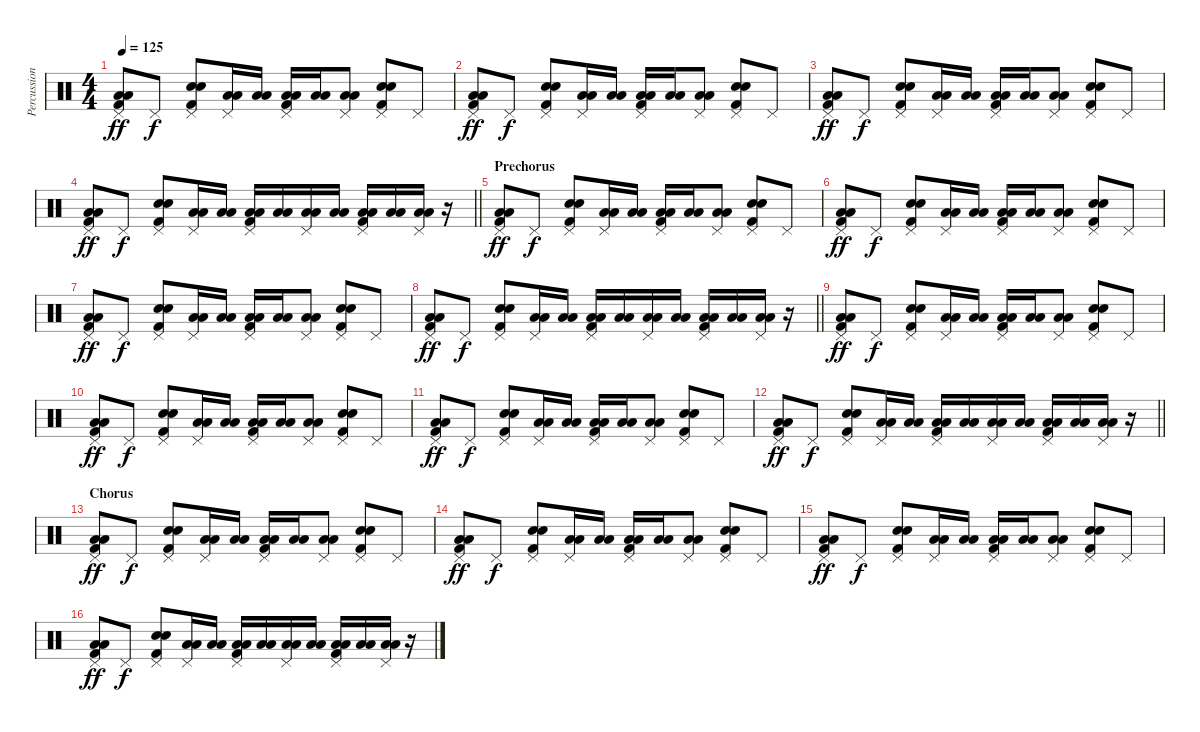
\track ("Percussion2" "Percussion") {instrument percussion}
\staff {score}
\articulation defaults
\ts (4 4)
\tempo 125
\clef neutral
\ks c
("Pedal Hi-Hat (hit)" "Low Floor Tom (hit)" "Low Floor Tom (hit)" "Kick (hit) 2").8{dy ff} "Pedal Hi-Hat (hit)".8{dy f} ("Pedal Hi-Hat (hit)" "Electric Snare (hit)" "Electric Snare (hit)" "Kick (hit) 2").8 ("Pedal Hi-Hat (hit)" "Low Floor Tom (hit)" "Low Floor Tom (hit)").16 ("Low Tom (hit)" "Low Tom (hit)").16 ("Pedal Hi-Hat (hit)" "Low Floor Tom (hit)" "Low Floor Tom (hit)" "Kick (hit) 2").16 ("Low Floor Tom (hit)" "Low Floor Tom (hit)").16 ("Pedal Hi-Hat (hit)" "Low Floor Tom (hit)" "Low Floor Tom (hit)").8 ("Pedal Hi-Hat (hit)" "Electric Snare (hit)" "Electric Snare (hit)" "Kick (hit) 2").8 "Pedal Hi-Hat (hit)".8 |
("Pedal Hi-Hat (hit)" "Low Floor Tom (hit)" "Low Floor Tom (hit)" "Kick (hit) 2").8{dy ff} "Pedal Hi-Hat (hit)".8{dy f} ("Pedal Hi-Hat (hit)" "Electric Snare (hit)" "Electric Snare (hit)" "Kick (hit) 2").8 ("Pedal Hi-Hat (hit)" "Low Floor Tom (hit)" "Low Floor Tom (hit)").16 ("Low Tom (hit)" "Low Tom (hit)").16 ("Pedal Hi-Hat (hit)" "Low Floor Tom (hit)" "Low Floor Tom (hit)" "Kick (hit) 2").16 ("Low Floor Tom (hit)" "Low Floor Tom (hit)").16 ("Pedal Hi-Hat (hit)" "Low Floor Tom (hit)" "Low Floor Tom (hit)").8 ("Pedal Hi-Hat (hit)" "Electric Snare (hit)" "Electric Snare (hit)" "Kick (hit) 2").8 "Pedal Hi-Hat (hit)".8 |
("Pedal Hi-Hat (hit)" "Low Floor Tom (hit)" "Low Floor Tom (hit)" "Kick (hit) 2").8{dy ff} "Pedal Hi-Hat (hit)".8{dy f} ("Pedal Hi-Hat (hit)" "Electric Snare (hit)" "Electric Snare (hit)" "Kick (hit) 2").8 ("Pedal Hi-Hat (hit)" "Low Floor Tom (hit)" "Low Floor Tom (hit)").16 ("Low Tom (hit)" "Low Tom (hit)").16 ("Pedal Hi-Hat (hit)" "Low Floor Tom (hit)" "Low Floor Tom (hit)" "Kick (hit) 2").16 ("Low Floor Tom (hit)" "Low Floor Tom (hit)").16 ("Pedal Hi-Hat (hit)" "Low Floor Tom (hit)" "Low Floor Tom (hit)").8 ("Pedal Hi-Hat (hit)" "Electric Snare (hit)" "Electric Snare (hit)" "Kick (hit) 2").8 "Pedal Hi-Hat (hit)".8 |
\barLineRight lightlight
("Pedal Hi-Hat (hit)" "Low Floor Tom (hit)" "Low Floor Tom (hit)" "Kick (hit) 2").8{dy ff} "Pedal Hi-Hat (hit)".8{dy f} ("Pedal Hi-Hat (hit)" "Electric Snare (hit)" "Electric Snare (hit)" "Kick (hit) 2").8 ("Pedal Hi-Hat (hit)" "Low Floor Tom (hit)" "Low Floor Tom (hit)").16 ("Low Tom (hit)" "Low Tom (hit)").16 ("Pedal Hi-Hat (hit)" "Low Floor Tom (hit)" "Low Floor Tom (hit)" "Kick (hit) 2").16 ("Low Floor Tom (hit)" "Low Floor Tom (hit)").16 ("Pedal Hi-Hat (hit)" "Low Floor Tom (hit)" "Low Floor Tom (hit)").16 ("Low Tom (hit)" "Low Tom (hit)").16 ("Pedal Hi-Hat (hit)" "Low Floor Tom (hit)" "Low Floor Tom (hit)" "Kick (hit) 2").16 ("Low Floor Tom (hit)" "Low Floor Tom (hit)").16 ("Pedal Hi-Hat (hit)" "Low Floor Tom (hit)" "Low Floor Tom (hit)").16 r.16 |
\section ("" "Prechorus")
("Pedal Hi-Hat (hit)" "Low Floor Tom (hit)" "Low Floor Tom (hit)" "Kick (hit) 2").8{dy ff} "Pedal Hi-Hat (hit)".8{dy f} ("Pedal Hi-Hat (hit)" "Electric Snare (hit)" "Electric Snare (hit)" "Kick (hit) 2").8 ("Pedal Hi-Hat (hit)" "Low Floor Tom (hit)" "Low Floor Tom (hit)").16 ("Low Tom (hit)" "Low Tom (hit)").16 ("Pedal Hi-Hat (hit)" "Low Floor Tom (hit)" "Low Floor Tom (hit)" "Kick (hit) 2").16 ("Low Floor Tom (hit)" "Low Floor Tom (hit)").16 ("Pedal Hi-Hat (hit)" "Low Floor Tom (hit)" "Low Floor Tom (hit)").8 ("Pedal Hi-Hat (hit)" "Electric Snare (hit)" "Electric Snare (hit)" "Kick (hit) 2").8 "Pedal Hi-Hat (hit)".8 |
("Pedal Hi-Hat (hit)" "Low Floor Tom (hit)" "Low Floor Tom (hit)" "Kick (hit) 2").8{dy ff} "Pedal Hi-Hat (hit)".8{dy f} ("Pedal Hi-Hat (hit)" "Electric Snare (hit)" "Electric Snare (hit)" "Kick (hit) 2").8 ("Pedal Hi-Hat (hit)" "Low Floor Tom (hit)" "Low Floor Tom (hit)").16 ("Low Tom (hit)" "Low Tom (hit)").16 ("Pedal Hi-Hat (hit)" "Low Floor Tom (hit)" "Low Floor Tom (hit)" "Kick (hit) 2").16 ("Low Floor Tom (hit)" "Low Floor Tom (hit)").16 ("Pedal Hi-Hat (hit)" "Low Floor Tom (hit)" "Low Floor Tom (hit)").8 ("Pedal Hi-Hat (hit)" "Electric Snare (hit)" "Electric Snare (hit)" "Kick (hit) 2").8 "Pedal Hi-Hat (hit)".8 |
("Pedal Hi-Hat (hit)" "Low Floor Tom (hit)" "Low Floor Tom (hit)" "Kick (hit) 2").8{dy ff} "Pedal Hi-Hat (hit)".8{dy f} ("Pedal Hi-Hat (hit)" "Electric Snare (hit)" "Electric Snare (hit)" "Kick (hit) 2").8 ("Pedal Hi-Hat (hit)" "Low Floor Tom (hit)" "Low Floor Tom (hit)").16 ("Low Tom (hit)" "Low Tom (hit)").16 ("Pedal Hi-Hat (hit)" "Low Floor Tom (hit)" "Low Floor Tom (hit)" "Kick (hit) 2").16 ("Low Floor Tom (hit)" "Low Floor Tom (hit)").16 ("Pedal Hi-Hat (hit)" "Low Floor Tom (hit)" "Low Floor Tom (hit)").8 ("Pedal Hi-Hat (hit)" "Electric Snare (hit)" "Electric Snare (hit)" "Kick (hit) 2").8 "Pedal Hi-Hat (hit)".8 |
\barLineRight lightlight
("Pedal Hi-Hat (hit)" "Low Floor Tom (hit)" "Low Floor Tom (hit)" "Kick (hit) 2").8{dy ff} "Pedal Hi-Hat (hit)".8{dy f} ("Pedal Hi-Hat (hit)" "Electric Snare (hit)" "Electric Snare (hit)" "Kick (hit) 2").8 ("Pedal Hi-Hat (hit)" "Low Floor Tom (hit)" "Low Floor Tom (hit)").16 ("Low Tom (hit)" "Low Tom (hit)").16 ("Pedal Hi-Hat (hit)" "Low Floor Tom (hit)" "Low Floor Tom (hit)" "Kick (hit) 2").16 ("Low Floor Tom (hit)" "Low Floor Tom (hit)").16 ("Pedal Hi-Hat (hit)" "Low Floor Tom (hit)" "Low Floor Tom (hit)").16 ("Low Tom (hit)" "Low Tom (hit)").16 ("Pedal Hi-Hat (hit)" "Low Floor Tom (hit)" "Low Floor Tom (hit)" "Kick (hit) 2").16 ("Low Floor Tom (hit)" "Low Floor Tom (hit)").16 ("Pedal Hi-Hat (hit)" "Low Floor Tom (hit)" "Low Floor Tom (hit)").16 r.16 |
("Pedal Hi-Hat (hit)" "Low Floor Tom (hit)" "Low Floor Tom (hit)" "Kick (hit) 2").8{dy ff} "Pedal Hi-Hat (hit)".8{dy f} ("Pedal Hi-Hat (hit)" "Electric Snare (hit)" "Electric Snare (hit)" "Kick (hit) 2").8 ("Pedal Hi-Hat (hit)" "Low Floor Tom (hit)" "Low Floor Tom (hit)").16 ("Low Tom (hit)" "Low Tom (hit)").16 ("Pedal Hi-Hat (hit)" "Low Floor Tom (hit)" "Low Floor Tom (hit)" "Kick (hit) 2").16 ("Low Floor Tom (hit)" "Low Floor Tom (hit)").16 ("Pedal Hi-Hat (hit)" "Low Floor Tom (hit)" "Low Floor Tom (hit)").8 ("Pedal Hi-Hat (hit)" "Electric Snare (hit)" "Electric Snare (hit)" "Kick (hit) 2").8 "Pedal Hi-Hat (hit)".8 |
("Pedal Hi-Hat (hit)" "Low Floor Tom (hit)" "Low Floor Tom (hit)" "Kick (hit) 2").8{dy ff} "Pedal Hi-Hat (hit)".8{dy f} ("Pedal Hi-Hat (hit)" "Electric Snare (hit)" "Electric Snare (hit)" "Kick (hit) 2").8 ("Pedal Hi-Hat (hit)" "Low Floor Tom (hit)" "Low Floor Tom (hit)").16 ("Low Tom (hit)" "Low Tom (hit)").16 ("Pedal Hi-Hat (hit)" "Low Floor Tom (hit)" "Low Floor Tom (hit)" "Kick (hit) 2").16 ("Low Floor Tom (hit)" "Low Floor Tom (hit)").16 ("Pedal Hi-Hat (hit)" "Low Floor Tom (hit)" "Low Floor Tom (hit)").8 ("Pedal Hi-Hat (hit)" "Electric Snare (hit)" "Electric Snare (hit)" "Kick (hit) 2").8 "Pedal Hi-Hat (hit)".8 |
("Pedal Hi-Hat (hit)" "Low Floor Tom (hit)" "Low Floor Tom (hit)" "Kick (hit) 2").8{dy ff} "Pedal Hi-Hat (hit)".8{dy f} ("Pedal Hi-Hat (hit)" "Electric Snare (hit)" "Electric Snare (hit)" "Kick (hit) 2").8 ("Pedal Hi-Hat (hit)" "Low Floor Tom (hit)" "Low Floor Tom (hit)").16 ("Low Tom (hit)" "Low Tom (hit)").16 ("Pedal Hi-Hat (hit)" "Low Floor Tom (hit)" "Low Floor Tom (hit)" "Kick (hit) 2").16 ("Low Floor Tom (hit)" "Low Floor Tom (hit)").16 ("Pedal Hi-Hat (hit)" "Low Floor Tom (hit)" "Low Floor Tom (hit)").8 ("Pedal Hi-Hat (hit)" "Electric Snare (hit)" "Electric Snare (hit)" "Kick (hit) 2").8 "Pedal Hi-Hat (hit)".8 |
\barLineRight lightlight
("Pedal Hi-Hat (hit)" "Low Floor Tom (hit)" "Low Floor Tom (hit)" "Kick (hit) 2").8{dy ff} "Pedal Hi-Hat (hit)".8{dy f} ("Pedal Hi-Hat (hit)" "Electric Snare (hit)" "Electric Snare (hit)" "Kick (hit) 2").8 ("Pedal Hi-Hat (hit)" "Low Floor Tom (hit)" "Low Floor Tom (hit)").16 ("Low Tom (hit)" "Low Tom (hit)").16 ("Pedal Hi-Hat (hit)" "Low Floor Tom (hit)" "Low Floor Tom (hit)" "Kick (hit) 2").16 ("Low Floor Tom (hit)" "Low Floor Tom (hit)").16 ("Pedal Hi-Hat (hit)" "Low Floor Tom (hit)" "Low Floor Tom (hit)").16 ("Low Tom (hit)" "Low Tom (hit)").16 ("Pedal Hi-Hat (hit)" "Low Floor Tom (hit)" "Low Floor Tom (hit)" "Kick (hit) 2").16 ("Low Floor Tom (hit)" "Low Floor Tom (hit)").16 ("Pedal Hi-Hat (hit)" "Low Floor Tom (hit)" "Low Floor Tom (hit)").16 r.16 |
\section ("" "Chorus")
("Pedal Hi-Hat (hit)" "Low Floor Tom (hit)" "Low Floor Tom (hit)" "Kick (hit) 2").8{dy ff} "Pedal Hi-Hat (hit)".8{dy f} ("Pedal Hi-Hat (hit)" "Electric Snare (hit)" "Electric Snare (hit)" "Kick (hit) 2").8 ("Pedal Hi-Hat (hit)" "Low Floor Tom (hit)" "Low Floor Tom (hit)").16 ("Low Tom (hit)" "Low Tom (hit)").16 ("Pedal Hi-Hat (hit)" "Low Floor Tom (hit)" "Low Floor Tom (hit)" "Kick (hit) 2").16 ("Low Floor Tom (hit)" "Low Floor Tom (hit)").16 ("Pedal Hi-Hat (hit)" "Low Floor Tom (hit)" "Low Floor Tom (hit)").8 ("Pedal Hi-Hat (hit)" "Electric Snare (hit)" "Electric Snare (hit)" "Kick (hit) 2").8 "Pedal Hi-Hat (hit)".8 |
("Pedal Hi-Hat (hit)" "Low Floor Tom (hit)" "Low Floor Tom (hit)" "Kick (hit) 2").8{dy ff} "Pedal Hi-Hat (hit)".8{dy f} ("Pedal Hi-Hat (hit)" "Electric Snare (hit)" "Electric Snare (hit)" "Kick (hit) 2").8 ("Pedal Hi-Hat (hit)" "Low Floor Tom (hit)" "Low Floor Tom (hit)").16 ("Low Tom (hit)" "Low Tom (hit)").16 ("Pedal Hi-Hat (hit)" "Low Floor Tom (hit)" "Low Floor Tom (hit)" "Kick (hit) 2").16 ("Low Floor Tom (hit)" "Low Floor Tom (hit)").16 ("Pedal Hi-Hat (hit)" "Low Floor Tom (hit)" "Low Floor Tom (hit)").8 ("Pedal Hi-Hat (hit)" "Electric Snare (hit)" "Electric Snare (hit)" "Kick (hit) 2").8 "Pedal Hi-Hat (hit)".8 |
("Pedal Hi-Hat (hit)" "Low Floor Tom (hit)" "Low Floor Tom (hit)" "Kick (hit) 2").8{dy ff} "Pedal Hi-Hat (hit)".8{dy f} ("Pedal Hi-Hat (hit)" "Electric Snare (hit)" "Electric Snare (hit)" "Kick (hit) 2").8 ("Pedal Hi-Hat (hit)" "Low Floor Tom (hit)" "Low Floor Tom (hit)").16 ("Low Tom (hit)" "Low Tom (hit)").16 ("Pedal Hi-Hat (hit)" "Low Floor Tom (hit)" "Low Floor Tom (hit)" "Kick (hit) 2").16 ("Low Floor Tom (hit)" "Low Floor Tom (hit)").16 ("Pedal Hi-Hat (hit)" "Low Floor Tom (hit)" "Low Floor Tom (hit)").8 ("Pedal Hi-Hat (hit)" "Electric Snare (hit)" "Electric Snare (hit)" "Kick (hit) 2").8 "Pedal Hi-Hat (hit)".8 |
("Pedal Hi-Hat (hit)" "Low Floor Tom (hit)" "Low Floor Tom (hit)" "Kick (hit) 2").8{dy ff} "Pedal Hi-Hat (hit)".8{dy f} ("Pedal Hi-Hat (hit)" "Electric Snare (hit)" "Electric Snare (hit)" "Kick (hit) 2").8 ("Pedal Hi-Hat (hit)" "Low Floor Tom (hit)" "Low Floor Tom (hit)").16 ("Low Tom (hit)" "Low Tom (hit)").16 ("Pedal Hi-Hat (hit)" "Low Floor Tom (hit)" "Low Floor Tom (hit)" "Kick (hit) 2").16 ("Low Floor Tom (hit)" "Low Floor Tom (hit)").16 ("Pedal Hi-Hat (hit)" "Low Floor Tom (hit)" "Low Floor Tom (hit)").16 ("Low Tom (hit)" "Low Tom (hit)").16 ("Pedal Hi-Hat (hit)" "Low Floor Tom (hit)" "Low Floor Tom (hit)" "Kick (hit) 2").16 ("Low Floor Tom (hit)" "Low Floor Tom (hit)").16 ("Pedal Hi-Hat (hit)" "Low Floor Tom (hit)" "Low Floor Tom (hit)").16 r.16
